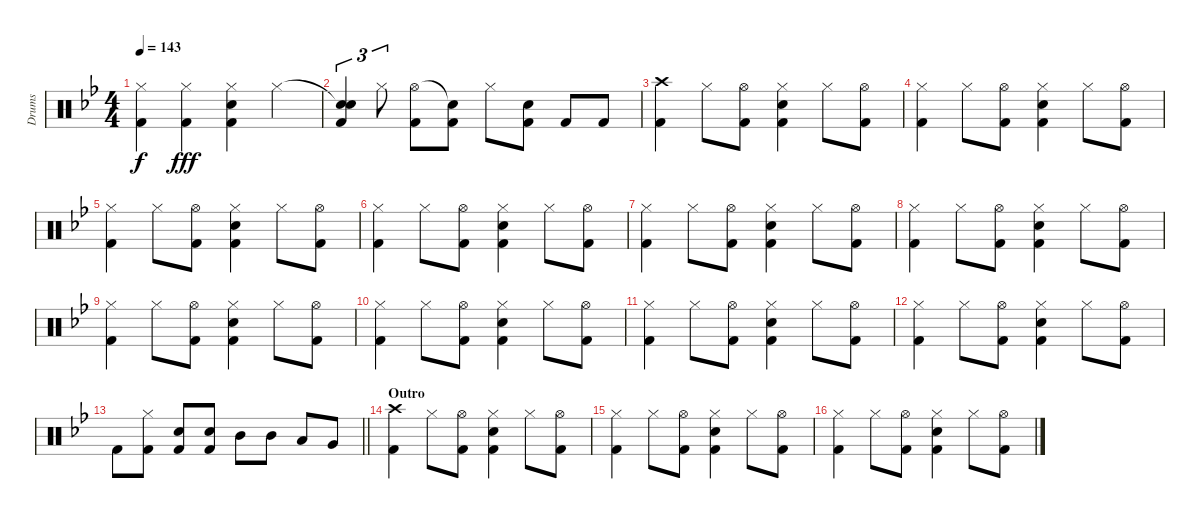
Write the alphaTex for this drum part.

\track ("Drums" "Drums") {instrument percussion}
\staff {score}
\articulation defaults
\ts (4 4)
\tempo 143
\clef neutral
\ks bb
("Hi-Hat (closed)" "Kick (hit) 2").4{dy f} ("Hi-Hat (closed)" "Kick (hit) 2").4{dy fff} ("Hi-Hat (closed)" "Snare (hit) 2" "Kick (hit) 2").4 "Hi-Hat (closed)".4 |
("Snare (hit)"{t} "Snare (hit) 2" "Kick (hit) 2").4{tu (3 2)} "Hi-Hat (closed)".8{tu (3 2)} ("Hi-Hat (open)" "Kick (hit) 2").8 ("Snare (hit)"{t} "Kick (hit) 2").8 "Hi-Hat (closed)".8 ("Snare (hit) 2" "Kick (hit) 2").8 "Kick (hit) 2".8 "Kick (hit) 2".8 |
("Crash high (hit)" "Kick (hit) 2").4 "Hi-Hat (closed)".8 ("Hi-Hat (open)" "Kick (hit) 2").8 ("Hi-Hat (closed)" "Snare (hit) 2" "Kick (hit) 2").4 "Hi-Hat (closed)".8 ("Hi-Hat (open)" "Kick (hit) 2").8 |
("Hi-Hat (closed)" "Kick (hit) 2").4 "Hi-Hat (closed)".8 ("Hi-Hat (open)" "Kick (hit) 2").8 ("Hi-Hat (closed)" "Snare (hit) 2" "Kick (hit) 2").4 "Hi-Hat (closed)".8 ("Hi-Hat (open)" "Kick (hit) 2").8 |
("Hi-Hat (closed)" "Kick (hit) 2").4 "Hi-Hat (closed)".8 ("Hi-Hat (open)" "Kick (hit) 2").8 ("Hi-Hat (closed)" "Snare (hit) 2" "Kick (hit) 2").4 "Hi-Hat (closed)".8 ("Hi-Hat (open)" "Kick (hit) 2").8 |
("Hi-Hat (closed)" "Kick (hit) 2").4 "Hi-Hat (closed)".8 ("Hi-Hat (open)" "Kick (hit) 2").8 ("Hi-Hat (closed)" "Snare (hit) 2" "Kick (hit) 2").4 "Hi-Hat (closed)".8 ("Hi-Hat (open)" "Kick (hit) 2").8 |
("Hi-Hat (closed)" "Kick (hit) 2").4 "Hi-Hat (closed)".8 ("Hi-Hat (open)" "Kick (hit) 2").8 ("Hi-Hat (closed)" "Snare (hit) 2" "Kick (hit) 2").4 "Hi-Hat (closed)".8 ("Hi-Hat (open)" "Kick (hit) 2").8 |
("Hi-Hat (closed)" "Kick (hit) 2").4 "Hi-Hat (closed)".8 ("Hi-Hat (open)" "Kick (hit) 2").8 ("Hi-Hat (closed)" "Snare (hit) 2" "Kick (hit) 2").4 "Hi-Hat (closed)".8 ("Hi-Hat (open)" "Kick (hit) 2").8 |
("Hi-Hat (closed)" "Kick (hit) 2").4 "Hi-Hat (closed)".8 ("Hi-Hat (open)" "Kick (hit) 2").8 ("Hi-Hat (closed)" "Snare (hit) 2" "Kick (hit) 2").4 "Hi-Hat (closed)".8 ("Hi-Hat (open)" "Kick (hit) 2").8 |
("Hi-Hat (closed)" "Kick (hit) 2").4 "Hi-Hat (closed)".8 ("Hi-Hat (open)" "Kick (hit) 2").8 ("Hi-Hat (closed)" "Snare (hit) 2" "Kick (hit) 2").4 "Hi-Hat (closed)".8 ("Hi-Hat (open)" "Kick (hit) 2").8 |
("Hi-Hat (closed)" "Kick (hit) 2").4 "Hi-Hat (closed)".8 ("Hi-Hat (open)" "Kick (hit) 2").8 ("Hi-Hat (closed)" "Snare (hit) 2" "Kick (hit) 2").4 "Hi-Hat (closed)".8 ("Hi-Hat (open)" "Kick (hit) 2").8 |
("Hi-Hat (closed)" "Kick (hit) 2").4 "Hi-Hat (closed)".8 ("Hi-Hat (open)" "Kick (hit) 2").8 ("Hi-Hat (closed)" "Snare (hit) 2" "Kick (hit) 2").4 "Hi-Hat (closed)".8 ("Hi-Hat (open)" "Kick (hit) 2").8 |
\barLineRight lightlight "Kick (hit) 2".8
("Hi-Hat (closed)" "Kick (hit) 2").8 ("Snare (hit) 2" "Kick (hit) 2").8 ("Snare (hit) 2" "Kick (hit) 2").8 "Mid Tom (hit)".8 "Mid Tom (hit)".8 "Low Tom (hit)".8 "Very Low Tom (hit)".8 |
\section ("" "Outro")
("Crash high (hit)" "Kick (hit) 2").4{volume 16} "Hi-Hat (closed)".8 ("Hi-Hat (open)" "Kick (hit) 2").8 ("Hi-Hat (closed)" "Snare (hit) 2" "Kick (hit) 2").4 "Hi-Hat (closed)".8 ("Hi-Hat (open)" "Kick (hit) 2").8 |
("Hi-Hat (closed)" "Kick (hit) 2").4 "Hi-Hat (closed)".8 ("Hi-Hat (open)" "Kick (hit) 2").8 ("Hi-Hat (closed)" "Snare (hit) 2" "Kick (hit) 2").4 "Hi-Hat (closed)".8 ("Hi-Hat (open)" "Kick (hit) 2").8 |
("Hi-Hat (closed)" "Kick (hit) 2").4 "Hi-Hat (closed)".8 ("Hi-Hat (open)" "Kick (hit) 2").8 ("Hi-Hat (closed)" "Snare (hit) 2" "Kick (hit) 2").4 "Hi-Hat (closed)".8 ("Hi-Hat (open)" "Kick (hit) 2").8
